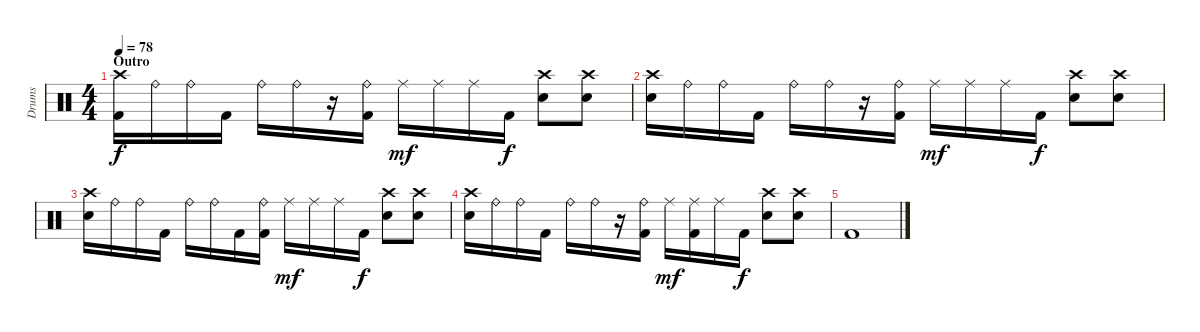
\track ("Drums" "Drums") {instrument percussion}
\staff {score}
\articulation defaults
\ts (4 4)
\section ("" "Outro")
\tempo 78
\clef neutral
\ks c
("Crash high (hit)" "Kick (hit) 2").16{dy f} "Ride (bell)".16 "Ride (bell)".16 "Kick (hit) 2".16 "Ride (bell)".16 "Ride (bell)".16 r.16 ("Ride (bell)" "Kick (hit) 2").16 "Ride (middle)".16{dy mf} "Ride (middle)".16 "Ride (middle)".16 "Kick (hit) 2".16{dy f} ("Crash high (hit)" "Electric Snare (hit)").8 ("Crash high (hit)" "Electric Snare (hit)").8 |
("Crash high (hit)" "Electric Snare (hit)").16 "Ride (bell)".16 "Ride (bell)".16 "Kick (hit) 2".16 "Ride (bell)".16 "Ride (bell)".16 r.16 ("Ride (bell)" "Kick (hit) 2").16 "Ride (middle)".16{dy mf} "Ride (middle)".16 "Ride (middle)".16 "Kick (hit) 2".16{dy f} ("Crash high (hit)" "Electric Snare (hit)").8 ("Crash high (hit)" "Electric Snare (hit)").8 |
("Crash high (hit)" "Electric Snare (hit)").16 "Ride (bell)".16 "Ride (bell)".16 "Kick (hit) 2".16 "Ride (bell)".16 "Ride (bell)".16 "Kick (hit) 2".16 ("Ride (bell)" "Kick (hit) 2").16 "Ride (middle)".16{dy mf} "Ride (middle)".16 "Ride (middle)".16 "Kick (hit) 2".16{dy f} ("Crash high (hit)" "Electric Snare (hit)").8 ("Crash high (hit)" "Electric Snare (hit)").8 |
("Crash high (hit)" "Electric Snare (hit)").16 "Ride (bell)".16 "Ride (bell)".16 "Kick (hit) 2".16 "Ride (bell)".16 "Ride (bell)".16 r.16 ("Ride (bell)" "Kick (hit) 2").16 "Ride (middle)".16{dy mf} ("Ride (middle)" "Kick (hit) 2").16 "Ride (middle)".16 "Kick (hit) 2".16{dy f} ("Crash high (hit)" "Electric Snare (hit)").8 ("Crash high (hit)" "Electric Snare (hit)").8 |
"Kick (hit) 2".1
